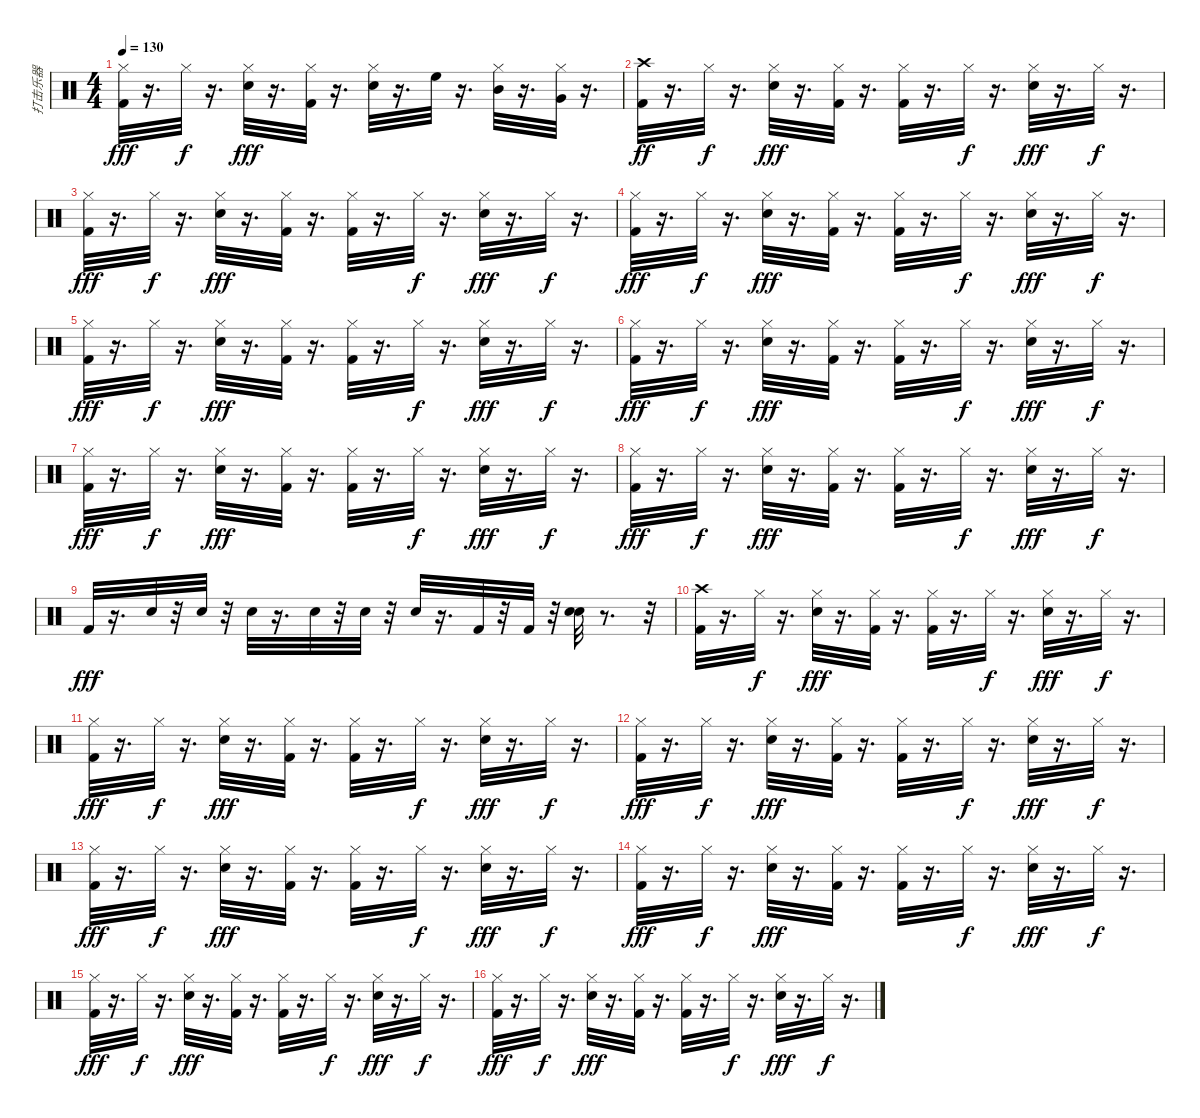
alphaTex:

\track ("打击乐器" "打击乐器") {instrument percussion}
\staff {score}
\articulation defaults
\ts (4 4)
\tempo 130
\clef neutral
\ks c
("Kick (hit) 2" "Hi-Hat (closed)").32{dy fff} r.16{d} "Hi-Hat (closed)".32{dy f} r.16{d} ("Hi-Hat (closed)" "Electric Snare (hit)").32{dy fff} r.16{d} ("Kick (hit) 2" "Hi-Hat (closed)").32 r.16{d} ("Electric Snare (hit)" "Hi-Hat (closed)").32 r.16{d} "High Floor Tom (hit)".32 r.16{d} ("Hi-Hat (closed)" "Mid Tom (hit)").32 r.16{d} ("Very Low Tom (hit)" "Hi-Hat (closed)").32 r.16{d} |
("Kick (hit) 2" "Crash high (hit)").32{dy ff} r.16{d} "Hi-Hat (closed)".32{dy f} r.16{d} ("Hi-Hat (closed)" "Electric Snare (hit)").32{dy fff} r.16{d} ("Kick (hit) 2" "Hi-Hat (closed)").32 r.16{d} ("Kick (hit) 2" "Hi-Hat (closed)").32 r.16{d} "Hi-Hat (closed)".32{dy f} r.16{d} ("Hi-Hat (closed)" "Electric Snare (hit)").32{dy fff} r.16{d} "Hi-Hat (closed)".32{dy f} r.16{d} |
("Kick (hit) 2" "Hi-Hat (closed)").32{dy fff} r.16{d} "Hi-Hat (closed)".32{dy f} r.16{d} ("Hi-Hat (closed)" "Electric Snare (hit)").32{dy fff} r.16{d} ("Kick (hit) 2" "Hi-Hat (closed)").32 r.16{d} ("Kick (hit) 2" "Hi-Hat (closed)").32 r.16{d} "Hi-Hat (closed)".32{dy f} r.16{d} ("Hi-Hat (closed)" "Electric Snare (hit)").32{dy fff} r.16{d} "Hi-Hat (closed)".32{dy f} r.16{d} |
("Hi-Hat (closed)" "Kick (hit) 2").32{dy fff} r.16{d} "Hi-Hat (closed)".32{dy f} r.16{d} ("Hi-Hat (closed)" "Electric Snare (hit)").32{dy fff} r.16{d} ("Kick (hit) 2" "Hi-Hat (closed)").32 r.16{d} ("Kick (hit) 2" "Hi-Hat (closed)").32 r.16{d} "Hi-Hat (closed)".32{dy f} r.16{d} ("Hi-Hat (closed)" "Electric Snare (hit)").32{dy fff} r.16{d} "Hi-Hat (closed)".32{dy f} r.16{d} |
("Kick (hit) 2" "Hi-Hat (closed)").32{dy fff} r.16{d} "Hi-Hat (closed)".32{dy f} r.16{d} ("Hi-Hat (closed)" "Electric Snare (hit)").32{dy fff} r.16{d} ("Kick (hit) 2" "Hi-Hat (closed)").32 r.16{d} ("Kick (hit) 2" "Hi-Hat (closed)").32 r.16{d} "Hi-Hat (closed)".32{dy f} r.16{d} ("Hi-Hat (closed)" "Electric Snare (hit)").32{dy fff} r.16{d} "Hi-Hat (closed)".32{dy f} r.16{d} |
("Kick (hit) 2" "Hi-Hat (closed)").32{dy fff} r.16{d} "Hi-Hat (closed)".32{dy f} r.16{d} ("Hi-Hat (closed)" "Electric Snare (hit)").32{dy fff} r.16{d} ("Kick (hit) 2" "Hi-Hat (closed)").32 r.16{d} ("Kick (hit) 2" "Hi-Hat (closed)").32 r.16{d} "Hi-Hat (closed)".32{dy f} r.16{d} ("Hi-Hat (closed)" "Electric Snare (hit)").32{dy fff} r.16{d} "Hi-Hat (closed)".32{dy f} r.16{d} |
("Kick (hit) 2" "Hi-Hat (closed)").32{dy fff} r.16{d} "Hi-Hat (closed)".32{dy f} r.16{d} ("Hi-Hat (closed)" "Electric Snare (hit)").32{dy fff} r.16{d} ("Kick (hit) 2" "Hi-Hat (closed)").32 r.16{d} ("Kick (hit) 2" "Hi-Hat (closed)").32 r.16{d} "Hi-Hat (closed)".32{dy f} r.16{d} ("Hi-Hat (closed)" "Electric Snare (hit)").32{dy fff} r.16{d} "Hi-Hat (closed)".32{dy f} r.16{d} |
("Hi-Hat (closed)" "Kick (hit) 2").32{dy fff} r.16{d} "Hi-Hat (closed)".32{dy f} r.16{d} ("Hi-Hat (closed)" "Electric Snare (hit)").32{dy fff} r.16{d} ("Kick (hit) 2" "Hi-Hat (closed)").32 r.16{d} ("Kick (hit) 2" "Hi-Hat (closed)").32 r.16{d} "Hi-Hat (closed)".32{dy f} r.16{d} ("Hi-Hat (closed)" "Electric Snare (hit)").32{dy fff} r.16{d} "Hi-Hat (closed)".32{dy f} r.16{d} |
"Kick (hit) 2".32{dy fff} r.16{d} "Snare (hit) 2".32 r.32 "Electric Snare (hit)".32 r.32 "Snare (hit) 2".32 r.16{d} "Snare (hit) 2".32 r.32 "Electric Snare (hit)".32 r.32 "Snare (hit) 2".32 r.16{d} "Kick (hit) 2".32 r.32 "Kick (hit) 2".32 r.32 ("Snare (hit) 2" "Snare (hit) 2").32 r.8{d} r.32 |
("Crash high (hit)" "Kick (hit) 2").32 r.16{d} "Hi-Hat (closed)".32{dy f} r.16{d} ("Hi-Hat (closed)" "Electric Snare (hit)").32{dy fff} r.16{d} ("Kick (hit) 2" "Hi-Hat (closed)").32 r.16{d} ("Kick (hit) 2" "Hi-Hat (closed)").32 r.16{d} "Hi-Hat (closed)".32{dy f} r.16{d} ("Hi-Hat (closed)" "Electric Snare (hit)").32{dy fff} r.16{d} "Hi-Hat (closed)".32{dy f} r.16{d} |
("Kick (hit) 2" "Hi-Hat (closed)").32{dy fff} r.16{d} "Hi-Hat (closed)".32{dy f} r.16{d} ("Hi-Hat (closed)" "Electric Snare (hit)").32{dy fff} r.16{d} ("Kick (hit) 2" "Hi-Hat (closed)").32 r.16{d} ("Kick (hit) 2" "Hi-Hat (closed)").32 r.16{d} "Hi-Hat (closed)".32{dy f} r.16{d} ("Hi-Hat (closed)" "Electric Snare (hit)").32{dy fff} r.16{d} "Hi-Hat (closed)".32{dy f} r.16{d} |
("Kick (hit) 2" "Hi-Hat (closed)").32{dy fff} r.16{d} "Hi-Hat (closed)".32{dy f} r.16{d} ("Hi-Hat (closed)" "Electric Snare (hit)").32{dy fff} r.16{d} ("Kick (hit) 2" "Hi-Hat (closed)").32 r.16{d} ("Kick (hit) 2" "Hi-Hat (closed)").32 r.16{d} "Hi-Hat (closed)".32{dy f} r.16{d} ("Hi-Hat (closed)" "Electric Snare (hit)").32{dy fff} r.16{d} "Hi-Hat (closed)".32{dy f} r.16{d} |
("Kick (hit) 2" "Hi-Hat (closed)").32{dy fff} r.16{d} "Hi-Hat (closed)".32{dy f} r.16{d} ("Hi-Hat (closed)" "Electric Snare (hit)").32{dy fff} r.16{d} ("Kick (hit) 2" "Hi-Hat (closed)").32 r.16{d} ("Kick (hit) 2" "Hi-Hat (closed)").32 r.16{d} "Hi-Hat (closed)".32{dy f} r.16{d} ("Hi-Hat (closed)" "Electric Snare (hit)").32{dy fff} r.16{d} "Hi-Hat (closed)".32{dy f} r.16{d} |
("Kick (hit) 2" "Hi-Hat (closed)").32{dy fff} r.16{d} "Hi-Hat (closed)".32{dy f} r.16{d} ("Hi-Hat (closed)" "Electric Snare (hit)").32{dy fff} r.16{d} ("Kick (hit) 2" "Hi-Hat (closed)").32 r.16{d} ("Kick (hit) 2" "Hi-Hat (closed)").32 r.16{d} "Hi-Hat (closed)".32{dy f} r.16{d} ("Hi-Hat (closed)" "Electric Snare (hit)").32{dy fff} r.16{d} "Hi-Hat (closed)".32{dy f} r.16{d} |
("Kick (hit) 2" "Hi-Hat (closed)").32{dy fff} r.16{d} "Hi-Hat (closed)".32{dy f} r.16{d} ("Hi-Hat (closed)" "Electric Snare (hit)").32{dy fff} r.16{d} ("Kick (hit) 2" "Hi-Hat (closed)").32 r.16{d} ("Kick (hit) 2" "Hi-Hat (closed)").32 r.16{d} "Hi-Hat (closed)".32{dy f} r.16{d} ("Hi-Hat (closed)" "Electric Snare (hit)").32{dy fff} r.16{d} "Hi-Hat (closed)".32{dy f} r.16{d} |
("Kick (hit) 2" "Hi-Hat (closed)").32{dy fff} r.16{d} "Hi-Hat (closed)".32{dy f} r.16{d} ("Hi-Hat (closed)" "Electric Snare (hit)").32{dy fff} r.16{d} ("Kick (hit) 2" "Hi-Hat (closed)").32 r.16{d} ("Kick (hit) 2" "Hi-Hat (closed)").32 r.16{d} "Hi-Hat (closed)".32{dy f} r.16{d} ("Hi-Hat (closed)" "Electric Snare (hit)").32{dy fff} r.16{d} "Hi-Hat (closed)".32{dy f} r.16{d}
